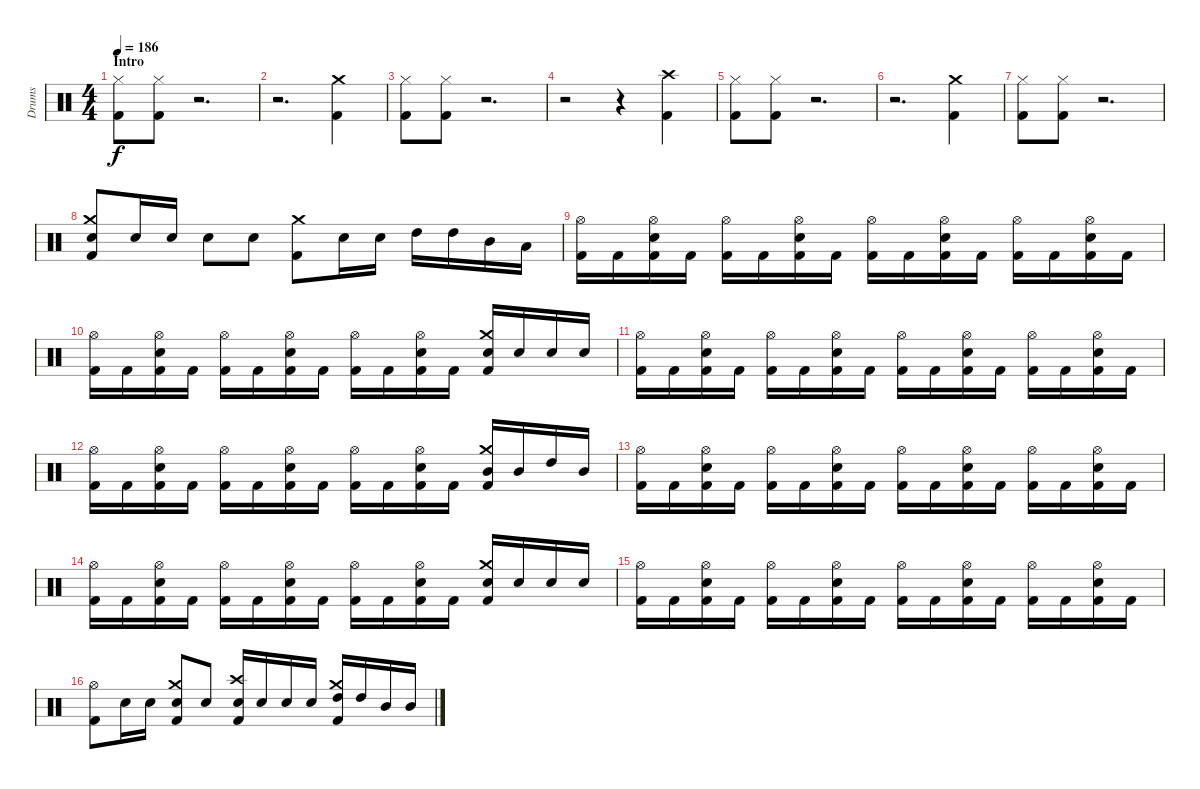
\track ("Drums" "Drums") {instrument percussion}
\staff {score}
\articulation defaults
\ts (4 4)
\section ("" "Intro")
\tempo 186
\clef neutral
\ks c
("Hi-Hat (closed)" "Kick (hit) 2").8{dy f} ("Hi-Hat (closed)" "Kick (hit) 2").8 r.2{d} |
r.2{d} ("Crash medium (hit)" "Kick (hit) 2").4 |
("Hi-Hat (closed)" "Kick (hit) 2").8 ("Hi-Hat (closed)" "Kick (hit) 2").8 r.2{d} |
r.2 r.4 ("Crash high (hit)" "Kick (hit) 2").4 |
("Hi-Hat (closed)" "Kick (hit) 2").8 ("Hi-Hat (closed)" "Kick (hit) 2").8 r.2{d} |
r.2{d} ("Crash medium (hit)" "Kick (hit) 2").4 |
("Hi-Hat (closed)" "Kick (hit) 2").8 ("Hi-Hat (closed)" "Kick (hit) 2").8 r.2{d} |
("Crash medium (hit)" "Electric Snare (hit)" "Kick (hit) 2").8 "Electric Snare (hit)".16 "Electric Snare (hit)".16 "Electric Snare (hit)".8 "Electric Snare (hit)".8 ("Crash medium (hit)" "Kick (hit) 2").8 "Electric Snare (hit)".16 "Electric Snare (hit)".16 "High Tom (hit)".16 "High Tom (hit)".16 "Mid Tom (hit)".16 "Low Tom (hit)".16 |
("Hi-Hat (open)" "Kick (hit) 2").16 "Kick (hit) 2".16 ("Electric Snare (hit)" "Hi-Hat (open)" "Kick (hit) 2").16 "Kick (hit) 2".16 ("Hi-Hat (open)" "Kick (hit) 2").16 "Kick (hit) 2".16 ("Electric Snare (hit)" "Hi-Hat (open)" "Kick (hit) 2").16 "Kick (hit) 2".16 ("Hi-Hat (open)" "Kick (hit) 2").16 "Kick (hit) 2".16 ("Electric Snare (hit)" "Hi-Hat (open)" "Kick (hit) 2").16 "Kick (hit) 2".16 ("Hi-Hat (open)" "Kick (hit) 2").16 "Kick (hit) 2".16 ("Electric Snare (hit)" "Hi-Hat (open)" "Kick (hit) 2").16 "Kick (hit) 2".16 |
("Hi-Hat (open)" "Kick (hit) 2").16 "Kick (hit) 2".16 ("Electric Snare (hit)" "Hi-Hat (open)" "Kick (hit) 2").16 "Kick (hit) 2".16 ("Hi-Hat (open)" "Kick (hit) 2").16 "Kick (hit) 2".16 ("Electric Snare (hit)" "Hi-Hat (open)" "Kick (hit) 2").16 "Kick (hit) 2".16 ("Hi-Hat (open)" "Kick (hit) 2").16 "Kick (hit) 2".16 ("Electric Snare (hit)" "Hi-Hat (open)" "Kick (hit) 2").16 "Kick (hit) 2".16 ("Crash medium (hit)" "Kick (hit) 2" "Electric Snare (hit)").16 "Electric Snare (hit)".16 "Electric Snare (hit)".16 "Electric Snare (hit)".16 |
("Hi-Hat (open)" "Kick (hit) 2").16 "Kick (hit) 2".16 ("Electric Snare (hit)" "Hi-Hat (open)" "Kick (hit) 2").16 "Kick (hit) 2".16 ("Hi-Hat (open)" "Kick (hit) 2").16 "Kick (hit) 2".16 ("Electric Snare (hit)" "Hi-Hat (open)" "Kick (hit) 2").16 "Kick (hit) 2".16 ("Hi-Hat (open)" "Kick (hit) 2").16 "Kick (hit) 2".16 ("Electric Snare (hit)" "Hi-Hat (open)" "Kick (hit) 2").16 "Kick (hit) 2".16 ("Hi-Hat (open)" "Kick (hit) 2").16 "Kick (hit) 2".16 ("Electric Snare (hit)" "Hi-Hat (open)" "Kick (hit) 2").16 "Kick (hit) 2".16 |
("Hi-Hat (open)" "Kick (hit) 2").16 "Kick (hit) 2".16 ("Electric Snare (hit)" "Hi-Hat (open)" "Kick (hit) 2").16 "Kick (hit) 2".16 ("Hi-Hat (open)" "Kick (hit) 2").16 "Kick (hit) 2".16 ("Electric Snare (hit)" "Hi-Hat (open)" "Kick (hit) 2").16 "Kick (hit) 2".16 ("Hi-Hat (open)" "Kick (hit) 2").16 "Kick (hit) 2".16 ("Electric Snare (hit)" "Hi-Hat (open)" "Kick (hit) 2").16 "Kick (hit) 2".16 ("Crash medium (hit)" "Kick (hit) 2" "Mid Tom (hit)").16 "Mid Tom (hit)".16 "High Tom (hit)".16 "Mid Tom (hit)".16 |
("Hi-Hat (open)" "Kick (hit) 2").16 "Kick (hit) 2".16 ("Electric Snare (hit)" "Hi-Hat (open)" "Kick (hit) 2").16 "Kick (hit) 2".16 ("Hi-Hat (open)" "Kick (hit) 2").16 "Kick (hit) 2".16 ("Electric Snare (hit)" "Hi-Hat (open)" "Kick (hit) 2").16 "Kick (hit) 2".16 ("Hi-Hat (open)" "Kick (hit) 2").16 "Kick (hit) 2".16 ("Electric Snare (hit)" "Hi-Hat (open)" "Kick (hit) 2").16 "Kick (hit) 2".16 ("Hi-Hat (open)" "Kick (hit) 2").16 "Kick (hit) 2".16 ("Electric Snare (hit)" "Hi-Hat (open)" "Kick (hit) 2").16 "Kick (hit) 2".16 |
("Hi-Hat (open)" "Kick (hit) 2").16 "Kick (hit) 2".16 ("Electric Snare (hit)" "Hi-Hat (open)" "Kick (hit) 2").16 "Kick (hit) 2".16 ("Hi-Hat (open)" "Kick (hit) 2").16 "Kick (hit) 2".16 ("Electric Snare (hit)" "Hi-Hat (open)" "Kick (hit) 2").16 "Kick (hit) 2".16 ("Hi-Hat (open)" "Kick (hit) 2").16 "Kick (hit) 2".16 ("Electric Snare (hit)" "Hi-Hat (open)" "Kick (hit) 2").16 "Kick (hit) 2".16 ("Crash medium (hit)" "Kick (hit) 2" "Electric Snare (hit)").16 "Electric Snare (hit)".16 "Electric Snare (hit)".16 "Electric Snare (hit)".16 |
("Hi-Hat (open)" "Kick (hit) 2").16 "Kick (hit) 2".16 ("Electric Snare (hit)" "Hi-Hat (open)" "Kick (hit) 2").16 "Kick (hit) 2".16 ("Hi-Hat (open)" "Kick (hit) 2").16 "Kick (hit) 2".16 ("Electric Snare (hit)" "Hi-Hat (open)" "Kick (hit) 2").16 "Kick (hit) 2".16 ("Hi-Hat (open)" "Kick (hit) 2").16 "Kick (hit) 2".16 ("Electric Snare (hit)" "Hi-Hat (open)" "Kick (hit) 2").16 "Kick (hit) 2".16 ("Hi-Hat (open)" "Kick (hit) 2").16 "Kick (hit) 2".16 ("Electric Snare (hit)" "Hi-Hat (open)" "Kick (hit) 2").16 "Kick (hit) 2".16 |
("Hi-Hat (open)" "Kick (hit) 2").8 "Electric Snare (hit)".16 "Electric Snare (hit)".16 ("Crash medium (hit)" "Electric Snare (hit)" "Kick (hit) 2").8 "Electric Snare (hit)".8 ("Crash high (hit)" "Electric Snare (hit)" "Kick (hit) 2").16 "Electric Snare (hit)".16 "Electric Snare (hit)".16 "Electric Snare (hit)".16 ("Crash medium (hit)" "High Tom (hit)" "Kick (hit) 2").16 "High Tom (hit)".16 "Mid Tom (hit)".16 "Mid Tom (hit)".16
